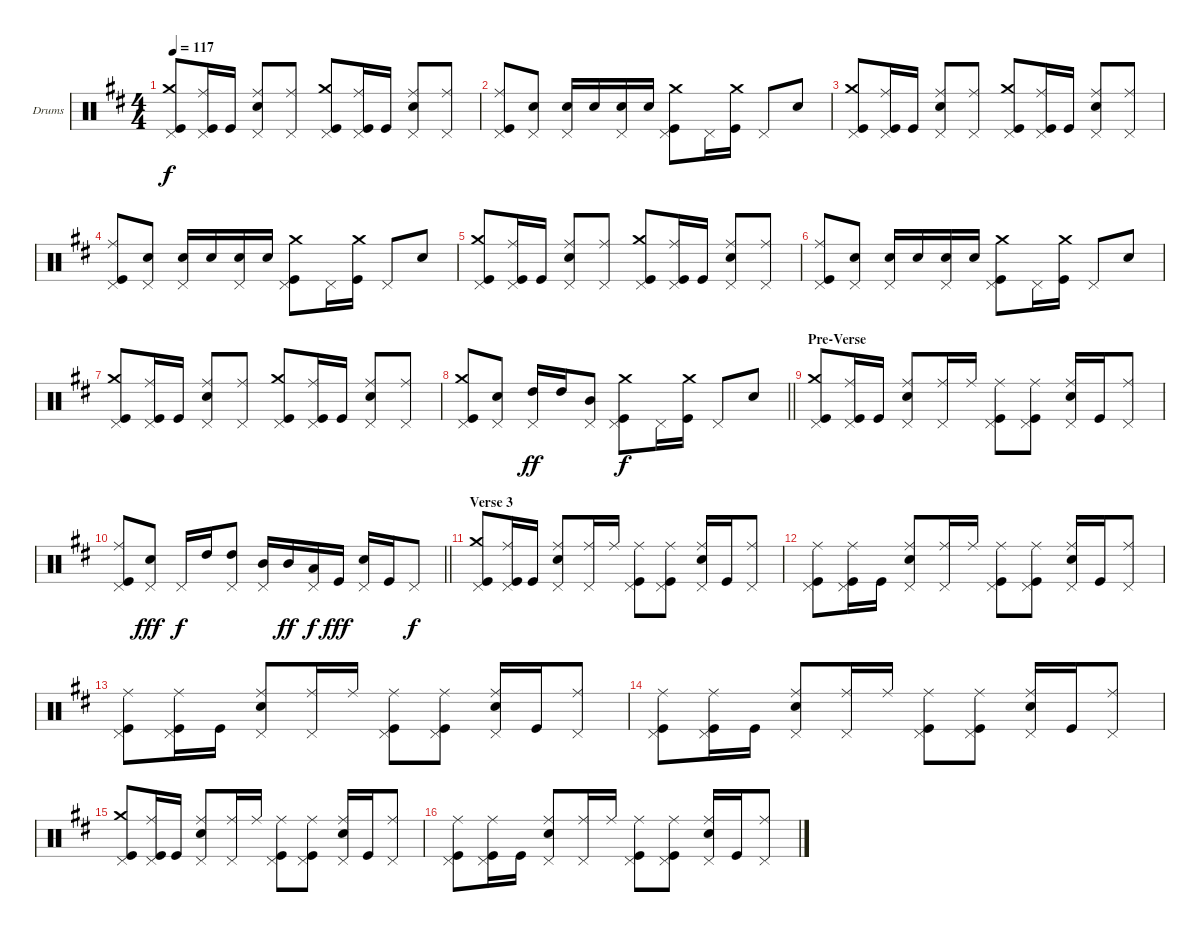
\bracketExtendMode groupsimilarinstruments
\firstSystemTrackNameOrientation horizontal
\otherSystemsTrackNameOrientation horizontal
\track ("Барабаны" "Drums") {instrument percussion}
\staff {score}
\articulation defaults
\ts (4 4)
\tempo 117
\clef neutral
\ks bminor
("Kick (hit)" "Crash medium (hit)" "Pedal Hi-Hat (hit)").8{dy f} ("Kick (hit)" "Ride (middle)" "Pedal Hi-Hat (hit)").16 "Kick (hit)".16 ("Snare (hit) 2" "Ride (middle)" "Pedal Hi-Hat (hit)").8 ("Ride (middle)" "Pedal Hi-Hat (hit)").8 ("Kick (hit)" "Crash medium (hit)" "Pedal Hi-Hat (hit)").8 ("Kick (hit)" "Ride (middle)" "Pedal Hi-Hat (hit)").16 "Kick (hit)".16 ("Snare (hit) 2" "Ride (middle)" "Pedal Hi-Hat (hit)").8 ("Ride (middle)" "Pedal Hi-Hat (hit)").8 |
("Kick (hit)" "Ride (middle)" "Pedal Hi-Hat (hit)").8 ("Snare (hit) 2" "Pedal Hi-Hat (hit)").8 ("Snare (hit) 2" "Pedal Hi-Hat (hit)").16 "Snare (hit) 2".16 ("Snare (hit) 2" "Pedal Hi-Hat (hit)").16 "Snare (hit) 2".16 ("Kick (hit)" "Crash medium (hit)" "Pedal Hi-Hat (hit)").8 "Pedal Hi-Hat (hit)".16 ("Kick (hit)" "Crash medium (hit)").16 "Pedal Hi-Hat (hit)".8 "Snare (hit) 2".8 |
("Kick (hit)" "Crash medium (hit)" "Pedal Hi-Hat (hit)").8 ("Kick (hit)" "Ride (middle)" "Pedal Hi-Hat (hit)").16 "Kick (hit)".16 ("Snare (hit) 2" "Ride (middle)" "Pedal Hi-Hat (hit)").8 ("Ride (middle)" "Pedal Hi-Hat (hit)").8 ("Kick (hit)" "Crash medium (hit)" "Pedal Hi-Hat (hit)").8 ("Kick (hit)" "Ride (middle)" "Pedal Hi-Hat (hit)").16 "Kick (hit)".16 ("Snare (hit) 2" "Ride (middle)" "Pedal Hi-Hat (hit)").8 ("Ride (middle)" "Pedal Hi-Hat (hit)").8 |
("Kick (hit)" "Ride (middle)" "Pedal Hi-Hat (hit)").8 ("Snare (hit) 2" "Pedal Hi-Hat (hit)").8 ("Snare (hit) 2" "Pedal Hi-Hat (hit)").16 "Snare (hit) 2".16 ("Snare (hit) 2" "Pedal Hi-Hat (hit)").16 "Snare (hit) 2".16 ("Kick (hit)" "Crash medium (hit)" "Pedal Hi-Hat (hit)").8 "Pedal Hi-Hat (hit)".16 ("Kick (hit)" "Crash medium (hit)").16 "Pedal Hi-Hat (hit)".8 "Snare (hit) 2".8 |
("Kick (hit)" "Crash medium (hit)" "Pedal Hi-Hat (hit)").8 ("Kick (hit)" "Ride (middle)" "Pedal Hi-Hat (hit)").16 "Kick (hit)".16 ("Snare (hit) 2" "Ride (middle)" "Pedal Hi-Hat (hit)").8 ("Ride (middle)" "Pedal Hi-Hat (hit)").8 ("Kick (hit)" "Crash medium (hit)" "Pedal Hi-Hat (hit)").8 ("Kick (hit)" "Ride (middle)" "Pedal Hi-Hat (hit)").16 "Kick (hit)".16 ("Snare (hit) 2" "Ride (middle)" "Pedal Hi-Hat (hit)").8 ("Ride (middle)" "Pedal Hi-Hat (hit)").8 |
("Kick (hit)" "Ride (middle)" "Pedal Hi-Hat (hit)").8 ("Snare (hit) 2" "Pedal Hi-Hat (hit)").8 ("Snare (hit) 2" "Pedal Hi-Hat (hit)").16 "Snare (hit) 2".16 ("Snare (hit) 2" "Pedal Hi-Hat (hit)").16 "Snare (hit) 2".16 ("Kick (hit)" "Crash medium (hit)" "Pedal Hi-Hat (hit)").8 "Pedal Hi-Hat (hit)".16 ("Kick (hit)" "Crash medium (hit)").16 "Pedal Hi-Hat (hit)".8 "Snare (hit) 2".8 |
("Kick (hit)" "Crash medium (hit)" "Pedal Hi-Hat (hit)").8 ("Kick (hit)" "Ride (middle)" "Pedal Hi-Hat (hit)").16 "Kick (hit)".16 ("Snare (hit) 2" "Ride (middle)" "Pedal Hi-Hat (hit)").8 ("Ride (middle)" "Pedal Hi-Hat (hit)").8 ("Kick (hit)" "Crash medium (hit)" "Pedal Hi-Hat (hit)").8 ("Kick (hit)" "Ride (middle)" "Pedal Hi-Hat (hit)").16 "Kick (hit)".16 ("Snare (hit) 2" "Ride (middle)" "Pedal Hi-Hat (hit)").8 ("Ride (middle)" "Pedal Hi-Hat (hit)").8 |
\barLineRight lightlight
("Kick (hit)" "Crash medium (hit)" "Pedal Hi-Hat (hit)").8 ("Snare (hit) 2" "Pedal Hi-Hat (hit)").8 ("High Tom (hit)" "Pedal Hi-Hat (hit)").16{dy ff} "High Tom (hit)".16 ("Mid Tom (hit)" "Pedal Hi-Hat (hit)").8 ("Kick (hit)" "Crash medium (hit)" "Pedal Hi-Hat (hit)").8{dy f} "Pedal Hi-Hat (hit)".16 ("Kick (hit)" "Crash medium (hit)").16 "Pedal Hi-Hat (hit)".8 "Snare (hit) 2".8 |
\section ("" "Pre-Verse")
("Kick (hit)" "Crash medium (hit)" "Pedal Hi-Hat (hit)").8 ("Kick (hit)" "Ride (middle)" "Pedal Hi-Hat (hit)").16 "Kick (hit)".16 ("Snare (hit) 2" "Ride (middle)" "Pedal Hi-Hat (hit)").8 ("Ride (middle)" "Pedal Hi-Hat (hit)").16 "Ride (middle)".16 ("Kick (hit)" "Ride (middle)" "Pedal Hi-Hat (hit)").8 ("Ride (middle)" "Kick (hit)" "Pedal Hi-Hat (hit)").8 ("Snare (hit) 2" "Ride (middle)" "Pedal Hi-Hat (hit)").16 "Kick (hit)".16 ("Ride (middle)" "Pedal Hi-Hat (hit)").8 |
\barLineRight lightlight
("Kick (hit)" "Pedal Hi-Hat (hit)" "Ride (middle)").8 ("Snare (hit) 2" "Pedal Hi-Hat (hit)").8{dy fff} "Pedal Hi-Hat (hit)".16{dy f} "High Tom (hit)".16 ("Pedal Hi-Hat (hit)" "High Tom (hit)").8 ("Pedal Hi-Hat (hit)" "Mid Tom (hit)").16 "Mid Tom (hit)".16{dy ff} ("Pedal Hi-Hat (hit)" "Low Tom (hit)").16{dy f} "Kick (hit)".16{dy fff} ("Snare (hit) 2" "Pedal Hi-Hat (hit)").16 "Kick (hit)".16 "Pedal Hi-Hat (hit)".8{dy f} |
\section ("" "Verse 3")
\ks d
("Kick (hit)" "Crash medium (hit)" "Pedal Hi-Hat (hit)").8 ("Kick (hit)" "Ride (middle)" "Pedal Hi-Hat (hit)").16 "Kick (hit)".16 ("Snare (hit) 2" "Ride (middle)" "Pedal Hi-Hat (hit)").8 ("Ride (middle)" "Pedal Hi-Hat (hit)").16 "Ride (middle)".16 ("Kick (hit)" "Ride (middle)" "Pedal Hi-Hat (hit)").8 ("Ride (middle)" "Kick (hit)" "Pedal Hi-Hat (hit)").8 ("Snare (hit) 2" "Ride (middle)" "Pedal Hi-Hat (hit)").16 "Kick (hit)".16 ("Ride (middle)" "Pedal Hi-Hat (hit)").8 |
("Kick (hit)" "Ride (middle)" "Pedal Hi-Hat (hit)").8 ("Kick (hit)" "Ride (middle)" "Pedal Hi-Hat (hit)").16 "Kick (hit)".16 ("Snare (hit) 2" "Ride (middle)" "Pedal Hi-Hat (hit)").8 ("Ride (middle)" "Pedal Hi-Hat (hit)").16 "Ride (middle)".16 ("Kick (hit)" "Ride (middle)" "Pedal Hi-Hat (hit)").8 ("Ride (middle)" "Kick (hit)" "Pedal Hi-Hat (hit)").8 ("Snare (hit) 2" "Ride (middle)" "Pedal Hi-Hat (hit)").16 "Kick (hit)".16 ("Ride (middle)" "Pedal Hi-Hat (hit)").8 |
("Kick (hit)" "Ride (middle)" "Pedal Hi-Hat (hit)").8 ("Kick (hit)" "Ride (middle)" "Pedal Hi-Hat (hit)").16 "Kick (hit)".16 ("Snare (hit) 2" "Ride (middle)" "Pedal Hi-Hat (hit)").8 ("Ride (middle)" "Pedal Hi-Hat (hit)").16 "Ride (middle)".16 ("Kick (hit)" "Ride (middle)" "Pedal Hi-Hat (hit)").8 ("Ride (middle)" "Kick (hit)" "Pedal Hi-Hat (hit)").8 ("Snare (hit) 2" "Ride (middle)" "Pedal Hi-Hat (hit)").16 "Kick (hit)".16 ("Ride (middle)" "Pedal Hi-Hat (hit)").8 |
("Kick (hit)" "Ride (middle)" "Pedal Hi-Hat (hit)").8 ("Kick (hit)" "Ride (middle)" "Pedal Hi-Hat (hit)").16 "Kick (hit)".16 ("Snare (hit) 2" "Ride (middle)" "Pedal Hi-Hat (hit)").8 ("Ride (middle)" "Pedal Hi-Hat (hit)").16 "Ride (middle)".16 ("Kick (hit)" "Ride (middle)" "Pedal Hi-Hat (hit)").8 ("Ride (middle)" "Kick (hit)" "Pedal Hi-Hat (hit)").8 ("Snare (hit) 2" "Ride (middle)" "Pedal Hi-Hat (hit)").16 "Kick (hit)".16 ("Ride (middle)" "Pedal Hi-Hat (hit)").8 |
("Kick (hit)" "Crash medium (hit)" "Pedal Hi-Hat (hit)").8 ("Kick (hit)" "Ride (middle)" "Pedal Hi-Hat (hit)").16 "Kick (hit)".16 ("Snare (hit) 2" "Ride (middle)" "Pedal Hi-Hat (hit)").8 ("Ride (middle)" "Pedal Hi-Hat (hit)").16 "Ride (middle)".16 ("Kick (hit)" "Ride (middle)" "Pedal Hi-Hat (hit)").8 ("Ride (middle)" "Kick (hit)" "Pedal Hi-Hat (hit)").8 ("Snare (hit) 2" "Ride (middle)" "Pedal Hi-Hat (hit)").16 "Kick (hit)".16 ("Ride (middle)" "Pedal Hi-Hat (hit)").8 |
("Kick (hit)" "Ride (middle)" "Pedal Hi-Hat (hit)").8 ("Kick (hit)" "Ride (middle)" "Pedal Hi-Hat (hit)").16 "Kick (hit)".16 ("Snare (hit) 2" "Ride (middle)" "Pedal Hi-Hat (hit)").8 ("Ride (middle)" "Pedal Hi-Hat (hit)").16 "Ride (middle)".16 ("Kick (hit)" "Ride (middle)" "Pedal Hi-Hat (hit)").8 ("Ride (middle)" "Kick (hit)" "Pedal Hi-Hat (hit)").8 ("Snare (hit) 2" "Ride (middle)" "Pedal Hi-Hat (hit)").16 "Kick (hit)".16 ("Ride (middle)" "Pedal Hi-Hat (hit)").8
